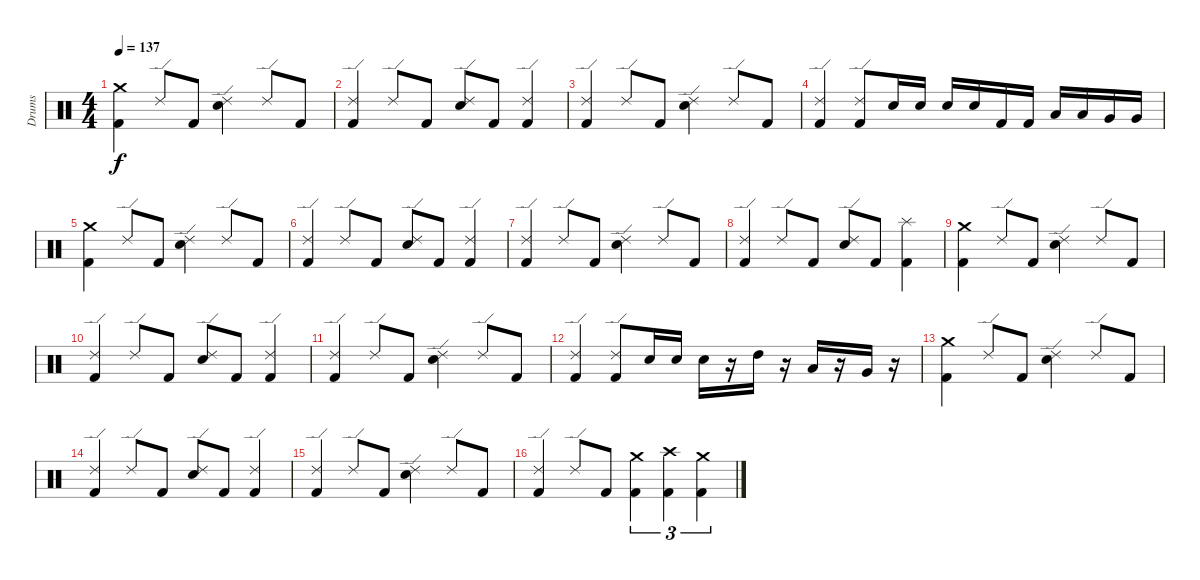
\track ("Drums" "Drums") {instrument percussion}
\staff {score}
\articulation defaults
\ts (4 4)
\tempo 137
\clef neutral
\ks c
("Kick (hit) 2" "Crash medium (hit)").4{dy f} "Ride (edge) 2".8 "Kick (hit) 2".8 ("Ride (edge) 2" "Electric Snare (hit)").4 "Ride (edge) 2".8 "Kick (hit) 2".8 |
("Ride (edge) 2" "Kick (hit) 2").4 "Ride (edge) 2".8 "Kick (hit) 2".8 ("Ride (edge) 2" "Electric Snare (hit)").8 "Kick (hit) 2".8 ("Ride (edge) 2" "Kick (hit) 2").4 |
("Ride (edge) 2" "Kick (hit) 2").4 "Ride (edge) 2".8 "Kick (hit) 2".8 ("Ride (edge) 2" "Electric Snare (hit)").4 "Ride (edge) 2".8 "Kick (hit) 2".8 |
("Ride (edge) 2" "Kick (hit) 2").4 ("Ride (edge) 2" "Kick (hit) 2").8 "Electric Snare (hit)".16 "Electric Snare (hit)".16 "Electric Snare (hit)".16 "Electric Snare (hit)".16 "Kick (hit) 2".16 "Kick (hit) 2".16 "Low Tom (hit)".16 "Low Tom (hit)".16 "Very Low Tom (hit)".16 "Very Low Tom (hit)".16 |
("Kick (hit) 2" "Crash medium (hit)").4 "Ride (edge) 2".8 "Kick (hit) 2".8 ("Ride (edge) 2" "Electric Snare (hit)").4 "Ride (edge) 2".8 "Kick (hit) 2".8 |
("Ride (edge) 2" "Kick (hit) 2").4 "Ride (edge) 2".8 "Kick (hit) 2".8 ("Ride (edge) 2" "Electric Snare (hit)").8 "Kick (hit) 2".8 ("Ride (edge) 2" "Kick (hit) 2").4 |
("Ride (edge) 2" "Kick (hit) 2").4 "Ride (edge) 2".8 "Kick (hit) 2".8 ("Ride (edge) 2" "Electric Snare (hit)").4 "Ride (edge) 2".8 "Kick (hit) 2".8 |
("Ride (edge) 2" "Kick (hit) 2").4 "Ride (edge) 2".8 "Kick (hit) 2".8 ("Ride (edge) 2" "Electric Snare (hit)").8 "Kick (hit) 2".8 ("Splash (hit)" "Kick (hit) 2").4 |
("Kick (hit) 2" "Crash medium (hit)").4 "Ride (edge) 2".8 "Kick (hit) 2".8 ("Ride (edge) 2" "Electric Snare (hit)").4 "Ride (edge) 2".8 "Kick (hit) 2".8 |
("Ride (edge) 2" "Kick (hit) 2").4 "Ride (edge) 2".8 "Kick (hit) 2".8 ("Ride (edge) 2" "Electric Snare (hit)").8 "Kick (hit) 2".8 ("Ride (edge) 2" "Kick (hit) 2").4 |
("Ride (edge) 2" "Kick (hit) 2").4 "Ride (edge) 2".8 "Kick (hit) 2".8 ("Ride (edge) 2" "Electric Snare (hit)").4 "Ride (edge) 2".8 "Kick (hit) 2".8 |
("Ride (edge) 2" "Kick (hit) 2").4 ("Ride (edge) 2" "Kick (hit) 2").8 "Electric Snare (hit)".16 "Electric Snare (hit)".16 "Electric Snare (hit)".16 r.16 "High Tom (hit)".16 r.16 "Low Tom (hit)".16 r.16 "Very Low Tom (hit)".16 r.16 |
("Kick (hit) 2" "Crash medium (hit)").4 "Ride (edge) 2".8 "Kick (hit) 2".8 ("Ride (edge) 2" "Electric Snare (hit)").4 "Ride (edge) 2".8 "Kick (hit) 2".8 |
("Ride (edge) 2" "Kick (hit) 2").4 "Ride (edge) 2".8 "Kick (hit) 2".8 ("Ride (edge) 2" "Electric Snare (hit)").8 "Kick (hit) 2".8 ("Ride (edge) 2" "Kick (hit) 2").4 |
("Ride (edge) 2" "Kick (hit) 2").4 "Ride (edge) 2".8 "Kick (hit) 2".8 ("Ride (edge) 2" "Electric Snare (hit)").4 "Ride (edge) 2".8 "Kick (hit) 2".8 |
("Ride (edge) 2" "Kick (hit) 2").4 "Ride (edge) 2".8 "Kick (hit) 2".8 ("Crash medium (hit)" "Kick (hit) 2").4{tu (3 2)} ("Crash high (hit)" "Kick (hit) 2").4{tu (3 2)} ("Crash medium (hit)" "Kick (hit) 2").4{tu (3 2)}
